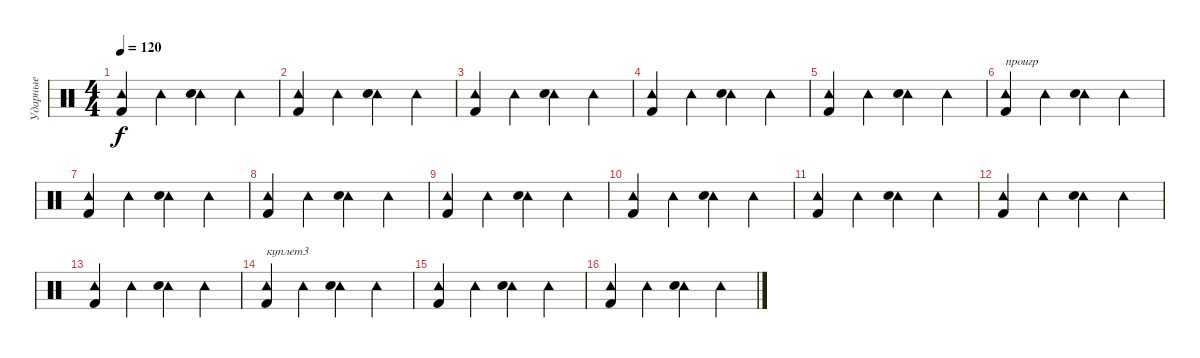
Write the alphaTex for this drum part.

\track ("Ударные" "Ударные") {instrument percussion}
\staff {score}
\articulation defaults
\ts (4 4)
\tempo 120
\clef neutral
\ks c
("Tambourine (hit)" "Kick (hit) 2").4{dy f} "Tambourine (hit)".4 ("Tambourine (hit)" "Electric Snare (hit)").4 "Tambourine (hit)".4 |
("Tambourine (hit)" "Kick (hit) 2").4 "Tambourine (hit)".4 ("Tambourine (hit)" "Electric Snare (hit)").4 "Tambourine (hit)".4 |
("Tambourine (hit)" "Kick (hit) 2").4 "Tambourine (hit)".4 ("Tambourine (hit)" "Electric Snare (hit)").4 "Tambourine (hit)".4 |
("Tambourine (hit)" "Kick (hit) 2").4 "Tambourine (hit)".4 ("Tambourine (hit)" "Electric Snare (hit)").4 "Tambourine (hit)".4 |
("Tambourine (hit)" "Kick (hit) 2").4 "Tambourine (hit)".4 ("Tambourine (hit)" "Electric Snare (hit)").4 "Tambourine (hit)".4 |
("Tambourine (hit)" "Kick (hit) 2").4{txt "проигр"} "Tambourine (hit)".4 ("Tambourine (hit)" "Electric Snare (hit)").4 "Tambourine (hit)".4 |
("Tambourine (hit)" "Kick (hit) 2").4 "Tambourine (hit)".4 ("Tambourine (hit)" "Electric Snare (hit)").4 "Tambourine (hit)".4 |
("Tambourine (hit)" "Kick (hit) 2").4 "Tambourine (hit)".4 ("Tambourine (hit)" "Electric Snare (hit)").4 "Tambourine (hit)".4 |
("Tambourine (hit)" "Kick (hit) 2").4 "Tambourine (hit)".4 ("Tambourine (hit)" "Electric Snare (hit)").4 "Tambourine (hit)".4 |
("Tambourine (hit)" "Kick (hit) 2").4 "Tambourine (hit)".4 ("Tambourine (hit)" "Electric Snare (hit)").4 "Tambourine (hit)".4 |
("Tambourine (hit)" "Kick (hit) 2").4 "Tambourine (hit)".4 ("Tambourine (hit)" "Electric Snare (hit)").4 "Tambourine (hit)".4 |
("Tambourine (hit)" "Kick (hit) 2").4 "Tambourine (hit)".4 ("Tambourine (hit)" "Electric Snare (hit)").4 "Tambourine (hit)".4 |
("Tambourine (hit)" "Kick (hit) 2").4 "Tambourine (hit)".4 ("Tambourine (hit)" "Electric Snare (hit)").4 "Tambourine (hit)".4 |
("Tambourine (hit)" "Kick (hit) 2").4{txt "куплет3"} "Tambourine (hit)".4 ("Tambourine (hit)" "Electric Snare (hit)").4 "Tambourine (hit)".4 |
("Tambourine (hit)" "Kick (hit) 2").4 "Tambourine (hit)".4 ("Tambourine (hit)" "Electric Snare (hit)").4 "Tambourine (hit)".4 |
("Tambourine (hit)" "Kick (hit) 2").4 "Tambourine (hit)".4 ("Tambourine (hit)" "Electric Snare (hit)").4 "Tambourine (hit)".4
